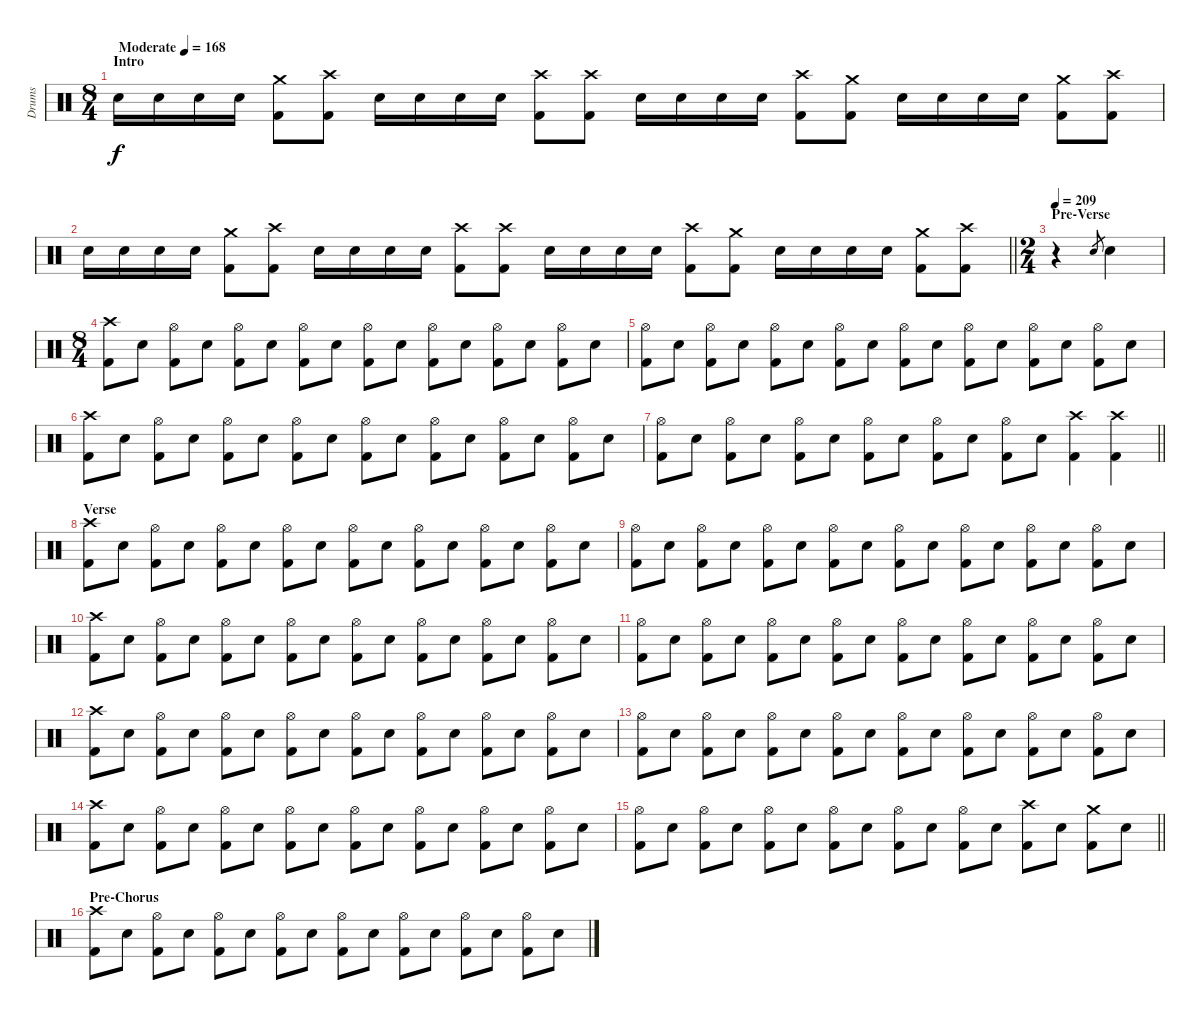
\track ("Drums" "Drums") {instrument percussion}
\staff {score}
\articulation defaults
\ts (8 4)
\section ("" "Intro")
\tempo (168 "Moderate")
\clef neutral
\ks c "Snare (hit) 2".16{dy f} "Snare (hit) 2".16 "Snare (hit) 2".16 "Snare (hit) 2".16
("Crash medium (hit)" "Kick (hit) 2").8 ("Crash high (hit)" "Kick (hit) 2").8 "Snare (hit) 2".16 "Snare (hit) 2".16 "Snare (hit) 2".16 "Snare (hit) 2".16 ("Crash high (hit)" "Kick (hit) 2").8 ("Crash high (hit)" "Kick (hit) 2").8 "Snare (hit) 2".16 "Snare (hit) 2".16 "Snare (hit) 2".16 "Snare (hit) 2".16 ("Crash high (hit)" "Kick (hit) 2").8 ("Crash medium (hit)" "Kick (hit) 2").8 "Snare (hit) 2".16 "Snare (hit) 2".16 "Snare (hit) 2".16 "Snare (hit) 2".16 ("Crash medium (hit)" "Kick (hit) 2").8 ("Crash high (hit)" "Kick (hit) 2").8 |
\barLineRight lightlight "Snare (hit) 2".16 "Snare (hit) 2".16 "Snare (hit) 2".16 "Snare (hit) 2".16
("Crash medium (hit)" "Kick (hit) 2").8 ("Crash high (hit)" "Kick (hit) 2").8 "Snare (hit) 2".16 "Snare (hit) 2".16 "Snare (hit) 2".16 "Snare (hit) 2".16 ("Crash high (hit)" "Kick (hit) 2").8 ("Crash high (hit)" "Kick (hit) 2").8 "Snare (hit) 2".16 "Snare (hit) 2".16 "Snare (hit) 2".16 "Snare (hit) 2".16 ("Crash high (hit)" "Kick (hit) 2").8 ("Crash medium (hit)" "Kick (hit) 2").8 "Snare (hit) 2".16 "Snare (hit) 2".16 "Snare (hit) 2".16 "Snare (hit) 2".16 ("Crash medium (hit)" "Kick (hit) 2").8 ("Crash high (hit)" "Kick (hit) 2").8 |
\ts (2 4)
\section ("" "Pre-Verse")
\tempo 209
r.4 "Snare (hit) 2".8{gr} "Snare (hit) 2".4 |
\ts (8 4)
("Crash high (hit)" "Kick (hit) 2").8 "Snare (hit) 2".8 ("Hi-Hat (open)" "Kick (hit) 2").8 "Snare (hit) 2".8 ("Hi-Hat (open)" "Kick (hit) 2").8 "Snare (hit) 2".8 ("Hi-Hat (open)" "Kick (hit) 2").8 "Snare (hit) 2".8 ("Hi-Hat (open)" "Kick (hit) 2").8 "Snare (hit) 2".8 ("Hi-Hat (open)" "Kick (hit) 2").8 "Snare (hit) 2".8 ("Hi-Hat (open)" "Kick (hit) 2").8 "Snare (hit) 2".8 ("Hi-Hat (open)" "Kick (hit) 2").8 "Snare (hit) 2".8 |
("Hi-Hat (open)" "Kick (hit) 2").8 "Snare (hit) 2".8 ("Hi-Hat (open)" "Kick (hit) 2").8 "Snare (hit) 2".8 ("Hi-Hat (open)" "Kick (hit) 2").8 "Snare (hit) 2".8 ("Hi-Hat (open)" "Kick (hit) 2").8 "Snare (hit) 2".8 ("Hi-Hat (open)" "Kick (hit) 2").8 "Snare (hit) 2".8 ("Hi-Hat (open)" "Kick (hit) 2").8 "Snare (hit) 2".8 ("Hi-Hat (open)" "Kick (hit) 2").8 "Snare (hit) 2".8 ("Hi-Hat (open)" "Kick (hit) 2").8 "Snare (hit) 2".8 |
("Crash high (hit)" "Kick (hit) 2").8 "Snare (hit) 2".8 ("Hi-Hat (open)" "Kick (hit) 2").8 "Snare (hit) 2".8 ("Hi-Hat (open)" "Kick (hit) 2").8 "Snare (hit) 2".8 ("Hi-Hat (open)" "Kick (hit) 2").8 "Snare (hit) 2".8 ("Hi-Hat (open)" "Kick (hit) 2").8 "Snare (hit) 2".8 ("Hi-Hat (open)" "Kick (hit) 2").8 "Snare (hit) 2".8 ("Hi-Hat (open)" "Kick (hit) 2").8 "Snare (hit) 2".8 ("Hi-Hat (open)" "Kick (hit) 2").8 "Snare (hit) 2".8 |
\barLineRight lightlight
("Hi-Hat (open)" "Kick (hit) 2").8 "Snare (hit) 2".8 ("Hi-Hat (open)" "Kick (hit) 2").8 "Snare (hit) 2".8 ("Hi-Hat (open)" "Kick (hit) 2").8 "Snare (hit) 2".8 ("Hi-Hat (open)" "Kick (hit) 2").8 "Snare (hit) 2".8 ("Hi-Hat (open)" "Kick (hit) 2").8 "Snare (hit) 2".8 ("Hi-Hat (open)" "Kick (hit) 2").8 "Snare (hit) 2".8 ("Crash high (hit)" "Kick (hit) 2").4 ("Crash high (hit)" "Kick (hit) 2").4 |
\section ("" "Verse")
("Crash high (hit)" "Kick (hit) 2").8 "Snare (hit) 2".8 ("Hi-Hat (open)" "Kick (hit) 2").8 "Snare (hit) 2".8 ("Hi-Hat (open)" "Kick (hit) 2").8 "Snare (hit) 2".8 ("Hi-Hat (open)" "Kick (hit) 2").8 "Snare (hit) 2".8 ("Hi-Hat (open)" "Kick (hit) 2").8 "Snare (hit) 2".8 ("Hi-Hat (open)" "Kick (hit) 2").8 "Snare (hit) 2".8 ("Hi-Hat (open)" "Kick (hit) 2").8 "Snare (hit) 2".8 ("Hi-Hat (open)" "Kick (hit) 2").8 "Snare (hit) 2".8 |
("Hi-Hat (open)" "Kick (hit) 2").8 "Snare (hit) 2".8 ("Hi-Hat (open)" "Kick (hit) 2").8 "Snare (hit) 2".8 ("Hi-Hat (open)" "Kick (hit) 2").8 "Snare (hit) 2".8 ("Hi-Hat (open)" "Kick (hit) 2").8 "Snare (hit) 2".8 ("Hi-Hat (open)" "Kick (hit) 2").8 "Snare (hit) 2".8 ("Hi-Hat (open)" "Kick (hit) 2").8 "Snare (hit) 2".8 ("Hi-Hat (open)" "Kick (hit) 2").8 "Snare (hit) 2".8 ("Hi-Hat (open)" "Kick (hit) 2").8 "Snare (hit) 2".8 |
("Crash high (hit)" "Kick (hit) 2").8 "Snare (hit) 2".8 ("Hi-Hat (open)" "Kick (hit) 2").8 "Snare (hit) 2".8 ("Hi-Hat (open)" "Kick (hit) 2").8 "Snare (hit) 2".8 ("Hi-Hat (open)" "Kick (hit) 2").8 "Snare (hit) 2".8 ("Hi-Hat (open)" "Kick (hit) 2").8 "Snare (hit) 2".8 ("Hi-Hat (open)" "Kick (hit) 2").8 "Snare (hit) 2".8 ("Hi-Hat (open)" "Kick (hit) 2").8 "Snare (hit) 2".8 ("Hi-Hat (open)" "Kick (hit) 2").8 "Snare (hit) 2".8 |
("Hi-Hat (open)" "Kick (hit) 2").8 "Snare (hit) 2".8 ("Hi-Hat (open)" "Kick (hit) 2").8 "Snare (hit) 2".8 ("Hi-Hat (open)" "Kick (hit) 2").8 "Snare (hit) 2".8 ("Hi-Hat (open)" "Kick (hit) 2").8 "Snare (hit) 2".8 ("Hi-Hat (open)" "Kick (hit) 2").8 "Snare (hit) 2".8 ("Hi-Hat (open)" "Kick (hit) 2").8 "Snare (hit) 2".8 ("Hi-Hat (open)" "Kick (hit) 2").8 "Snare (hit) 2".8 ("Hi-Hat (open)" "Kick (hit) 2").8 "Snare (hit) 2".8 |
("Crash high (hit)" "Kick (hit) 2").8 "Snare (hit) 2".8 ("Hi-Hat (open)" "Kick (hit) 2").8 "Snare (hit) 2".8 ("Hi-Hat (open)" "Kick (hit) 2").8 "Snare (hit) 2".8 ("Hi-Hat (open)" "Kick (hit) 2").8 "Snare (hit) 2".8 ("Hi-Hat (open)" "Kick (hit) 2").8 "Snare (hit) 2".8 ("Hi-Hat (open)" "Kick (hit) 2").8 "Snare (hit) 2".8 ("Hi-Hat (open)" "Kick (hit) 2").8 "Snare (hit) 2".8 ("Hi-Hat (open)" "Kick (hit) 2").8 "Snare (hit) 2".8 |
("Hi-Hat (open)" "Kick (hit) 2").8 "Snare (hit) 2".8 ("Hi-Hat (open)" "Kick (hit) 2").8 "Snare (hit) 2".8 ("Hi-Hat (open)" "Kick (hit) 2").8 "Snare (hit) 2".8 ("Hi-Hat (open)" "Kick (hit) 2").8 "Snare (hit) 2".8 ("Hi-Hat (open)" "Kick (hit) 2").8 "Snare (hit) 2".8 ("Hi-Hat (open)" "Kick (hit) 2").8 "Snare (hit) 2".8 ("Hi-Hat (open)" "Kick (hit) 2").8 "Snare (hit) 2".8 ("Hi-Hat (open)" "Kick (hit) 2").8 "Snare (hit) 2".8 |
("Crash high (hit)" "Kick (hit) 2").8 "Snare (hit) 2".8 ("Hi-Hat (open)" "Kick (hit) 2").8 "Snare (hit) 2".8 ("Hi-Hat (open)" "Kick (hit) 2").8 "Snare (hit) 2".8 ("Hi-Hat (open)" "Kick (hit) 2").8 "Snare (hit) 2".8 ("Hi-Hat (open)" "Kick (hit) 2").8 "Snare (hit) 2".8 ("Hi-Hat (open)" "Kick (hit) 2").8 "Snare (hit) 2".8 ("Hi-Hat (open)" "Kick (hit) 2").8 "Snare (hit) 2".8 ("Hi-Hat (open)" "Kick (hit) 2").8 "Snare (hit) 2".8 |
\barLineRight lightlight
("Hi-Hat (open)" "Kick (hit) 2").8 "Snare (hit) 2".8 ("Hi-Hat (open)" "Kick (hit) 2").8 "Snare (hit) 2".8 ("Hi-Hat (open)" "Kick (hit) 2").8 "Snare (hit) 2".8 ("Hi-Hat (open)" "Kick (hit) 2").8 "Snare (hit) 2".8 ("Hi-Hat (open)" "Kick (hit) 2").8 "Snare (hit) 2".8 ("Hi-Hat (open)" "Kick (hit) 2").8 "Snare (hit) 2".8 ("Crash high (hit)" "Kick (hit) 2").8 "Snare (hit) 2".8 ("Crash medium (hit)" "Kick (hit) 2").8 "Snare (hit) 2".8 |
\section ("" "Pre-Chorus")
("Crash high (hit)" "Kick (hit) 2").8 "Snare (hit) 2".8 ("Hi-Hat (open)" "Kick (hit) 2").8 "Snare (hit) 2".8 ("Hi-Hat (open)" "Kick (hit) 2").8 "Snare (hit) 2".8 ("Hi-Hat (open)" "Kick (hit) 2").8 "Snare (hit) 2".8 ("Hi-Hat (open)" "Kick (hit) 2").8 "Snare (hit) 2".8 ("Hi-Hat (open)" "Kick (hit) 2").8 "Snare (hit) 2".8 ("Hi-Hat (open)" "Kick (hit) 2").8 "Snare (hit) 2".8 ("Hi-Hat (open)" "Kick (hit) 2").8 "Snare (hit) 2".8
